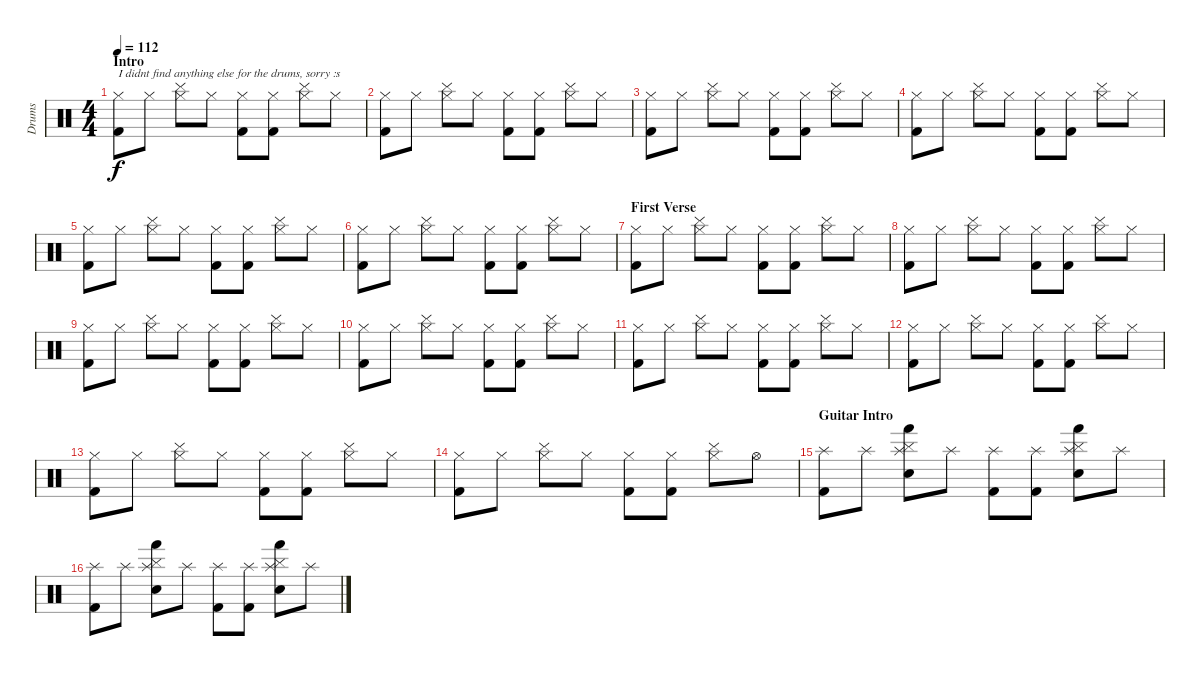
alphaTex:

\track ("Drums" "Drums") {instrument percussion}
\staff {score}
\articulation defaults
\ts (4 4)
\section ("" "Intro")
\tempo 112
\clef neutral
\ks c
("Hi-Hat (closed)" "Kick (hit) 2").8{txt "I didnt find anything else for the drums, sorry :s" dy f} "Hi-Hat (closed)".8 ("Hi-Hat (closed)" "Cymbal (hit)").8 "Hi-Hat (closed)".8 ("Hi-Hat (closed)" "Kick (hit) 2").8 ("Hi-Hat (closed)" "Kick (hit) 2").8 ("Hi-Hat (closed)" "Cymbal (hit)").8 "Hi-Hat (closed)".8 |
("Hi-Hat (closed)" "Kick (hit) 2").8 "Hi-Hat (closed)".8 ("Hi-Hat (closed)" "Cymbal (hit)").8 "Hi-Hat (closed)".8 ("Hi-Hat (closed)" "Kick (hit) 2").8 ("Hi-Hat (closed)" "Kick (hit) 2").8 ("Hi-Hat (closed)" "Cymbal (hit)").8 "Hi-Hat (closed)".8 |
("Hi-Hat (closed)" "Kick (hit) 2").8 "Hi-Hat (closed)".8 ("Hi-Hat (closed)" "Cymbal (hit)").8 "Hi-Hat (closed)".8 ("Hi-Hat (closed)" "Kick (hit) 2").8 ("Hi-Hat (closed)" "Kick (hit) 2").8 ("Hi-Hat (closed)" "Cymbal (hit)").8 "Hi-Hat (closed)".8 |
("Hi-Hat (closed)" "Kick (hit) 2").8 "Hi-Hat (closed)".8 ("Hi-Hat (closed)" "Cymbal (hit)").8 "Hi-Hat (closed)".8 ("Hi-Hat (closed)" "Kick (hit) 2").8 ("Hi-Hat (closed)" "Kick (hit) 2").8 ("Hi-Hat (closed)" "Cymbal (hit)").8 "Hi-Hat (closed)".8 |
("Hi-Hat (closed)" "Kick (hit) 2").8 "Hi-Hat (closed)".8 ("Hi-Hat (closed)" "Cymbal (hit)").8 "Hi-Hat (closed)".8 ("Hi-Hat (closed)" "Kick (hit) 2").8 ("Hi-Hat (closed)" "Kick (hit) 2").8 ("Hi-Hat (closed)" "Cymbal (hit)").8 "Hi-Hat (closed)".8 |
("Hi-Hat (closed)" "Kick (hit) 2").8 "Hi-Hat (closed)".8 ("Hi-Hat (closed)" "Cymbal (hit)").8 "Hi-Hat (closed)".8 ("Hi-Hat (closed)" "Kick (hit) 2").8 ("Hi-Hat (closed)" "Kick (hit) 2").8 ("Hi-Hat (closed)" "Cymbal (hit)").8 "Hi-Hat (closed)".8 |
\section ("" "First Verse")
("Hi-Hat (closed)" "Kick (hit) 2").8 "Hi-Hat (closed)".8 ("Hi-Hat (closed)" "Cymbal (hit)").8 "Hi-Hat (closed)".8 ("Hi-Hat (closed)" "Kick (hit) 2").8 ("Hi-Hat (closed)" "Kick (hit) 2").8 ("Hi-Hat (closed)" "Cymbal (hit)").8 "Hi-Hat (closed)".8 |
("Hi-Hat (closed)" "Kick (hit) 2").8 "Hi-Hat (closed)".8 ("Hi-Hat (closed)" "Cymbal (hit)").8 "Hi-Hat (closed)".8 ("Hi-Hat (closed)" "Kick (hit) 2").8 ("Hi-Hat (closed)" "Kick (hit) 2").8 ("Hi-Hat (closed)" "Cymbal (hit)").8 "Hi-Hat (closed)".8 |
("Hi-Hat (closed)" "Kick (hit) 2").8 "Hi-Hat (closed)".8 ("Hi-Hat (closed)" "Cymbal (hit)").8 "Hi-Hat (closed)".8 ("Hi-Hat (closed)" "Kick (hit) 2").8 ("Hi-Hat (closed)" "Kick (hit) 2").8 ("Hi-Hat (closed)" "Cymbal (hit)").8 "Hi-Hat (closed)".8 |
("Hi-Hat (closed)" "Kick (hit) 2").8 "Hi-Hat (closed)".8 ("Hi-Hat (closed)" "Cymbal (hit)").8 "Hi-Hat (closed)".8 ("Hi-Hat (closed)" "Kick (hit) 2").8 ("Hi-Hat (closed)" "Kick (hit) 2").8 ("Hi-Hat (closed)" "Cymbal (hit)").8 "Hi-Hat (closed)".8 |
("Hi-Hat (closed)" "Kick (hit) 2").8 "Hi-Hat (closed)".8 ("Hi-Hat (closed)" "Cymbal (hit)").8 "Hi-Hat (closed)".8 ("Hi-Hat (closed)" "Kick (hit) 2").8 ("Hi-Hat (closed)" "Kick (hit) 2").8 ("Hi-Hat (closed)" "Cymbal (hit)").8 "Hi-Hat (closed)".8 |
("Hi-Hat (closed)" "Kick (hit) 2").8 "Hi-Hat (closed)".8 ("Hi-Hat (closed)" "Cymbal (hit)").8 "Hi-Hat (closed)".8 ("Hi-Hat (closed)" "Kick (hit) 2").8 ("Hi-Hat (closed)" "Kick (hit) 2").8 ("Hi-Hat (closed)" "Cymbal (hit)").8 "Hi-Hat (closed)".8 |
("Hi-Hat (closed)" "Kick (hit) 2").8 "Hi-Hat (closed)".8 ("Hi-Hat (closed)" "Cymbal (hit)").8 "Hi-Hat (closed)".8 ("Hi-Hat (closed)" "Kick (hit) 2").8 ("Hi-Hat (closed)" "Kick (hit) 2").8 ("Hi-Hat (closed)" "Cymbal (hit)").8 "Hi-Hat (closed)".8 |
("Hi-Hat (closed)" "Kick (hit) 2").8 "Hi-Hat (closed)".8 ("Hi-Hat (closed)" "Cymbal (hit)").8 "Hi-Hat (closed)".8 ("Hi-Hat (closed)" "Kick (hit) 2").8 ("Hi-Hat (closed)" "Kick (hit) 2").8 ("Hi-Hat (closed)" "Cymbal (hit)").8 "Hi-Hat (open)".8 |
\section ("" "Guitar Intro")
("Splash (hit)" "Kick (hit) 2").8 "Splash (hit)".8 ("Splash (hit)" "Hand (hit)" "Snare (hit) 2" "Cymbal (hit)").8 "Splash (hit)".8 ("Splash (hit)" "Kick (hit) 2").8 ("Splash (hit)" "Kick (hit) 2").8 ("Splash (hit)" "Cymbal (hit)" "Snare (hit) 2" "Hand (hit)").8 "Splash (hit)".8 |
("Splash (hit)" "Kick (hit) 2").8 "Splash (hit)".8 ("Splash (hit)" "Hand (hit)" "Snare (hit) 2" "Cymbal (hit)").8 "Splash (hit)".8 ("Splash (hit)" "Kick (hit) 2").8 ("Splash (hit)" "Kick (hit) 2").8 ("Splash (hit)" "Cymbal (hit)" "Snare (hit) 2" "Hand (hit)").8 "Splash (hit)".8
